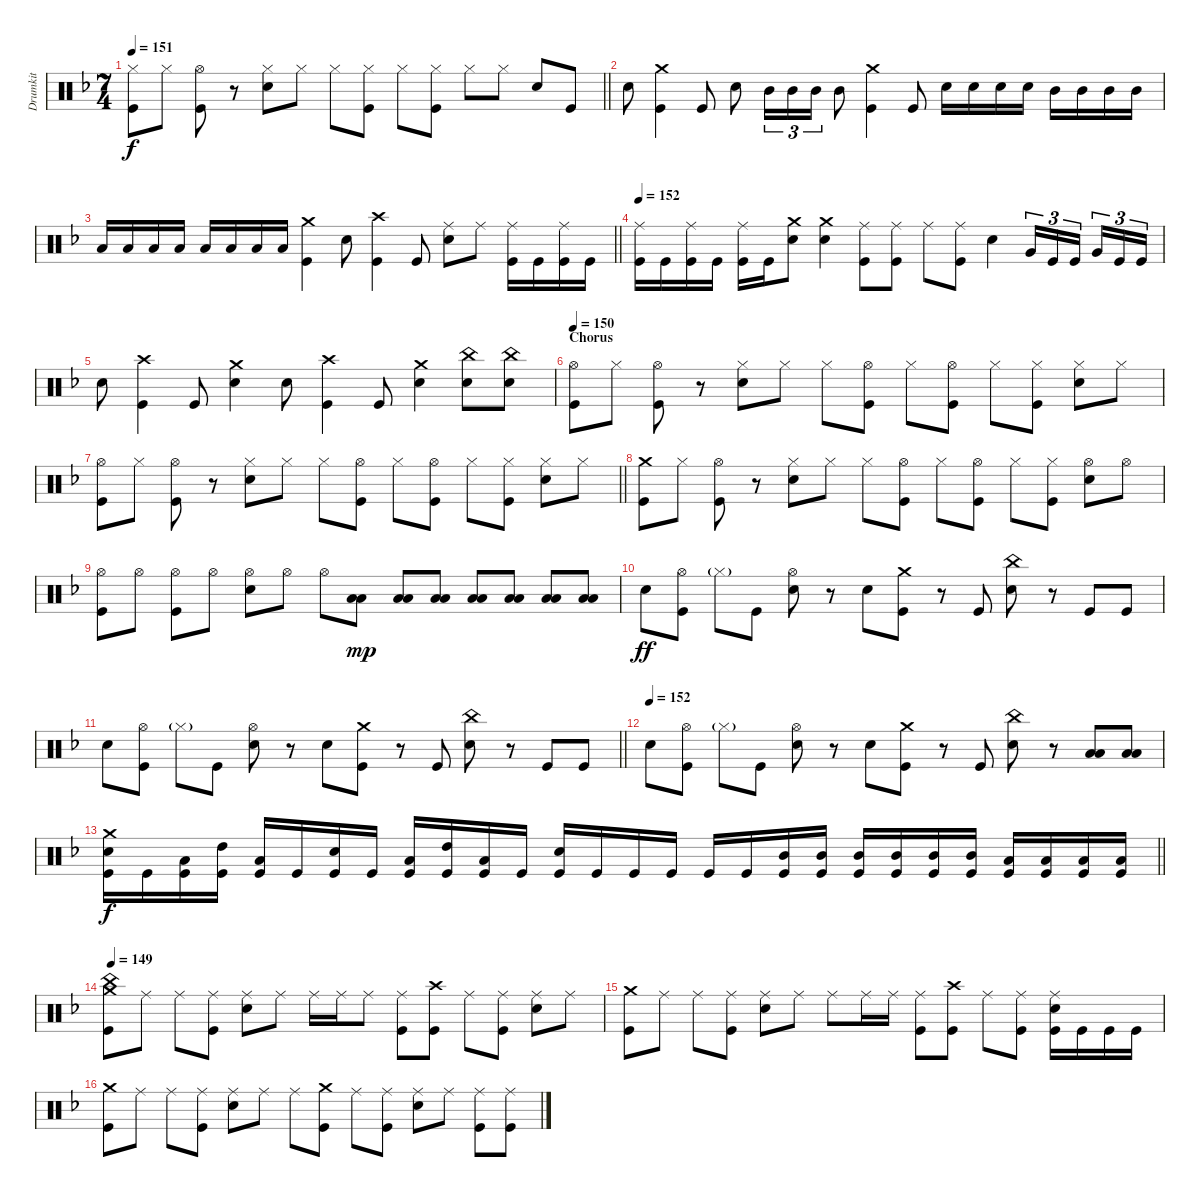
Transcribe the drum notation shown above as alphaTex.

\track ("Drumkit" "Drumkit") {instrument percussion}
\staff {score}
\articulation defaults
\ts (7 4)
\tempo 151
\clef neutral
\barLineRight lightlight
\ks dminor
("Kick (hit)" "Hi-Hat (closed)").8{dy f} "Hi-Hat (closed)".8 ("Kick (hit)" "Hi-Hat (open)").8 r.8 ("Snare (hit) 2" "Hi-Hat (closed)").8 "Hi-Hat (closed)".8 "Hi-Hat (closed)".8 ("Kick (hit)" "Hi-Hat (closed)").8 "Hi-Hat (closed)".8 ("Kick (hit)" "Hi-Hat (closed)").8 "Hi-Hat (closed)".8 "Hi-Hat (closed)".8 "Snare (hit) 2".8 "Kick (hit)".8 |
"Snare (hit) 2".8 ("Kick (hit)" "Crash medium (hit)").4 "Kick (hit)".8 "Snare (hit) 2".8 "Mid Tom (hit)".16{tu (3 2)} "Mid Tom (hit)".16{tu (3 2)} "Mid Tom (hit)".16{tu (3 2)} "Mid Tom (hit)".8 ("Kick (hit)" "Crash medium (hit)").4 "Kick (hit)".8 "Snare (hit) 2".16 "Snare (hit) 2".16 "Snare (hit) 2".16 "Snare (hit) 2".16 "Mid Tom (hit)".16 "Mid Tom (hit)".16 "Mid Tom (hit)".16 "Mid Tom (hit)".16 |
\barLineRight lightlight "Low Tom (hit)".16 "Low Tom (hit)".16 "Low Tom (hit)".16 "Low Tom (hit)".16 "Low Floor Tom (hit)".16 "Low Floor Tom (hit)".16 "Low Floor Tom (hit)".16 "Low Floor Tom (hit)".16
("Kick (hit)" "Crash medium (hit)").4 "Snare (hit) 2".8 ("Kick (hit)" "Crash high (hit)").4 "Kick (hit)".8 ("Snare (hit) 2" "Ride (middle)").8 "Ride (middle)".8 ("Kick (hit)" "Ride (middle)").16 "Kick (hit)".16 ("Kick (hit)" "Ride (middle)").16 "Kick (hit)".16 |
\tempo 152
("Kick (hit)" "Ride (middle)").16 "Kick (hit)".16 ("Kick (hit)" "Ride (middle)").16 "Kick (hit)".16 ("Kick (hit)" "Ride (middle)").16 "Kick (hit)".16 ("Snare (hit) 2" "Crash medium (hit)").8 ("Snare (hit) 2" "Crash medium (hit)").4 ("Kick (hit)" "Ride (middle)").8 ("Kick (hit)" "Ride (middle)").8 "Ride (middle)".8 ("Kick (hit)" "Ride (middle)").8 "Snare (hit) 2".4 "Very Low Tom (hit)".16{tu (3 2)} "Kick (hit)".16{tu (3 2)} "Kick (hit)".16{tu (3 2) beam splitsecondary} "Very Low Tom (hit)".16{tu (3 2)} "Kick (hit)".16{tu (3 2)} "Kick (hit)".16{tu (3 2)} |
"Snare (hit) 2".8 ("Kick (hit)" "Crash high (hit)").4 "Kick (hit)".8 ("Snare (hit) 2" "Crash medium (hit)").4 "Snare (hit) 2".8 ("Kick (hit)" "Crash high (hit)").4 "Kick (hit)".8 ("Snare (hit) 2" "Crash medium (hit)").4 ("Snare (hit) 2" "China (hit)").8 ("Snare (hit) 2" "China (hit)").8 |
\section ("" "Chorus")
\tempo 150
("Kick (hit)" "Hi-Hat (open)").8 "Hi-Hat (closed)".8 ("Kick (hit)" "Hi-Hat (open)").8 r.8 ("Snare (hit) 2" "Hi-Hat (closed)").8 "Hi-Hat (closed)".8 "Hi-Hat (closed)".8 ("Kick (hit)" "Hi-Hat (open)").8 "Hi-Hat (closed)".8 ("Kick (hit)" "Hi-Hat (open)").8 "Hi-Hat (closed)".8 ("Hi-Hat (closed)" "Kick (hit)").8 ("Hi-Hat (closed)" "Snare (hit) 2").8 "Hi-Hat (closed)".8 |
\barLineRight lightlight
("Kick (hit)" "Hi-Hat (open)").8 "Hi-Hat (closed)".8 ("Kick (hit)" "Hi-Hat (open)").8 r.8 ("Snare (hit) 2" "Hi-Hat (closed)").8 "Hi-Hat (closed)".8 "Hi-Hat (closed)".8 ("Kick (hit)" "Hi-Hat (open)").8 "Hi-Hat (closed)".8 ("Kick (hit)" "Hi-Hat (open)").8 "Hi-Hat (closed)".8 ("Hi-Hat (closed)" "Kick (hit)").8 ("Hi-Hat (closed)" "Snare (hit) 2").8 "Hi-Hat (closed)".8 |
("Kick (hit)" "Crash medium (hit)").8 "Hi-Hat (closed)".8 ("Kick (hit)" "Hi-Hat (open)").8 r.8 ("Snare (hit) 2" "Hi-Hat (closed)").8 "Hi-Hat (closed)".8 "Hi-Hat (closed)".8 ("Kick (hit)" "Hi-Hat (open)").8 "Hi-Hat (closed)".8 ("Kick (hit)" "Hi-Hat (open)").8 "Hi-Hat (closed)".8 ("Hi-Hat (closed)" "Kick (hit)").8 ("Hi-Hat (open)" "Snare (hit) 2").8 "Hi-Hat (open)".8 |
("Kick (hit)" "Hi-Hat (open)").8 "Hi-Hat (open)".8 ("Kick (hit)" "Hi-Hat (open)").8 "Hi-Hat (open)".8 ("Snare (hit) 2" "Hi-Hat (open)").8 "Hi-Hat (open)".8 "Hi-Hat (open)".8 ("Low Floor Tom (hit)" "Low Tom (hit)").8{dy mp} ("Low Floor Tom (hit)" "Low Tom (hit)").8 ("Low Floor Tom (hit)" "Low Tom (hit)").8 ("Low Floor Tom (hit)" "Low Tom (hit)").8 ("Low Floor Tom (hit)" "Low Tom (hit)").8 ("Low Floor Tom (hit)" "Low Tom (hit)").8 ("Low Floor Tom (hit)" "Low Tom (hit)").8 |
\section ("" "")
"Snare (hit) 2".8{dy ff} ("Hi-Hat (open)" "Kick (hit)").8 "Hi-Hat (closed)"{g}.8 "Kick (hit)".8 ("Snare (hit) 2" "Hi-Hat (open)").8 r.8 "Snare (hit) 2".8 ("Kick (hit)" "Crash medium (hit)").8 r.8 "Kick (hit)".8 ("Snare (hit) 2" "China (hit)").8 r.8 "Kick (hit)".8 "Kick (hit)".8 |
\barLineRight lightlight "Snare (hit) 2".8
("Kick (hit)" "Hi-Hat (open)").8 "Hi-Hat (closed)"{g}.8 "Kick (hit)".8 ("Snare (hit) 2" "Hi-Hat (open)").8 r.8 "Snare (hit) 2".8 ("Kick (hit)" "Crash medium (hit)").8 r.8 "Kick (hit)".8 ("Snare (hit) 2" "China (hit)").8 r.8 "Kick (hit)".8 "Kick (hit)".8 |
\tempo (152)
"Snare (hit) 2".8 ("Hi-Hat (open)" "Kick (hit)").8 "Hi-Hat (closed)"{g}.8 "Kick (hit)".8 ("Snare (hit) 2" "Hi-Hat (open)").8 r.8 "Snare (hit) 2".8 ("Kick (hit)" "Crash medium (hit)").8 r.8 "Kick (hit)".8 ("Snare (hit) 2" "China (hit)").8 r.8 ("Low Tom (hit)" "Low Floor Tom (hit)").8 ("Low Tom (hit)" "Low Floor Tom (hit)").8 |
\barLineRight lightlight
("Crash medium (hit)" "Kick (hit)" "Snare (hit) 2").16{dy f} "Kick (hit)".16 ("Kick (hit)" "Low Tom (hit)").16 ("High Tom (hit)" "Kick (hit)").16 ("Kick (hit)" "Low Tom (hit)").16 "Kick (hit)".16 ("Snare (hit) 2" "Kick (hit)").16 "Kick (hit)".16 ("Kick (hit)" "Low Tom (hit)").16 ("High Tom (hit)" "Kick (hit)").16 ("Kick (hit)" "Low Tom (hit)").16 "Kick (hit)".16 ("Snare (hit) 2" "Kick (hit)").16 "Kick (hit)".16 "Kick (hit)".16 "Kick (hit)".16 "Kick (hit)".16 "Kick (hit)".16 ("Kick (hit)" "Mid Tom (hit)").16 ("Kick (hit)" "Mid Tom (hit)").16 ("Kick (hit)" "Mid Tom (hit)").16 ("Kick (hit)" "Mid Tom (hit)").16 ("Kick (hit)" "Mid Tom (hit)").16 ("Kick (hit)" "Mid Tom (hit)").16 ("Kick (hit)" "Low Tom (hit)").16 ("Kick (hit)" "Low Tom (hit)").16 ("Kick (hit)" "Low Tom (hit)").16 ("Kick (hit)" "Low Tom (hit)").16 |
\section ("" "")
\tempo 149
("Kick (hit)" "China (hit)" "Crash medium (hit)").8 "Ride (middle)".8 "Ride (middle)".8 ("Ride (middle)" "Kick (hit)").8 ("Ride (middle)" "Snare (hit) 2").8 "Ride (middle)".8 "Ride (middle)".16 "Ride (middle)".16 "Ride (middle)".8 ("Ride (middle)" "Kick (hit)").8 ("Kick (hit)" "Crash high (hit)").8 "Ride (middle)".8 ("Ride (middle)" "Kick (hit)").8 ("Ride (middle)" "Snare (hit) 2").8 "Ride (middle)".8 |
("Kick (hit)" "Crash medium (hit)").8 "Ride (middle)".8 "Ride (middle)".8 ("Ride (middle)" "Kick (hit)").8 ("Ride (middle)" "Snare (hit) 2").8 "Ride (middle)".8 "Ride (middle)".8 "Ride (middle)".16 "Ride (middle)".16 ("Ride (middle)" "Kick (hit)").8 ("Kick (hit)" "Crash high (hit)").8 "Ride (middle)".8 ("Ride (middle)" "Kick (hit)").8 ("Ride (middle)" "Snare (hit) 2" "Kick (hit)").16 "Kick (hit)".16 "Kick (hit)".16 "Kick (hit)".16 |
("Kick (hit)" "Crash medium (hit)").8 "Ride (middle)".8 "Ride (middle)".8 ("Ride (middle)" "Kick (hit)").8 ("Ride (middle)" "Snare (hit) 2").8 "Ride (middle)".8 "Ride (middle)".8 ("Kick (hit)" "Crash medium (hit)").8 "Ride (middle)".8 ("Ride (middle)" "Kick (hit)").8 ("Ride (middle)" "Snare (hit) 2").8 "Ride (middle)".8 ("Kick (hit)" "Ride (middle)").8 ("Kick (hit)" "Ride (middle)").8
